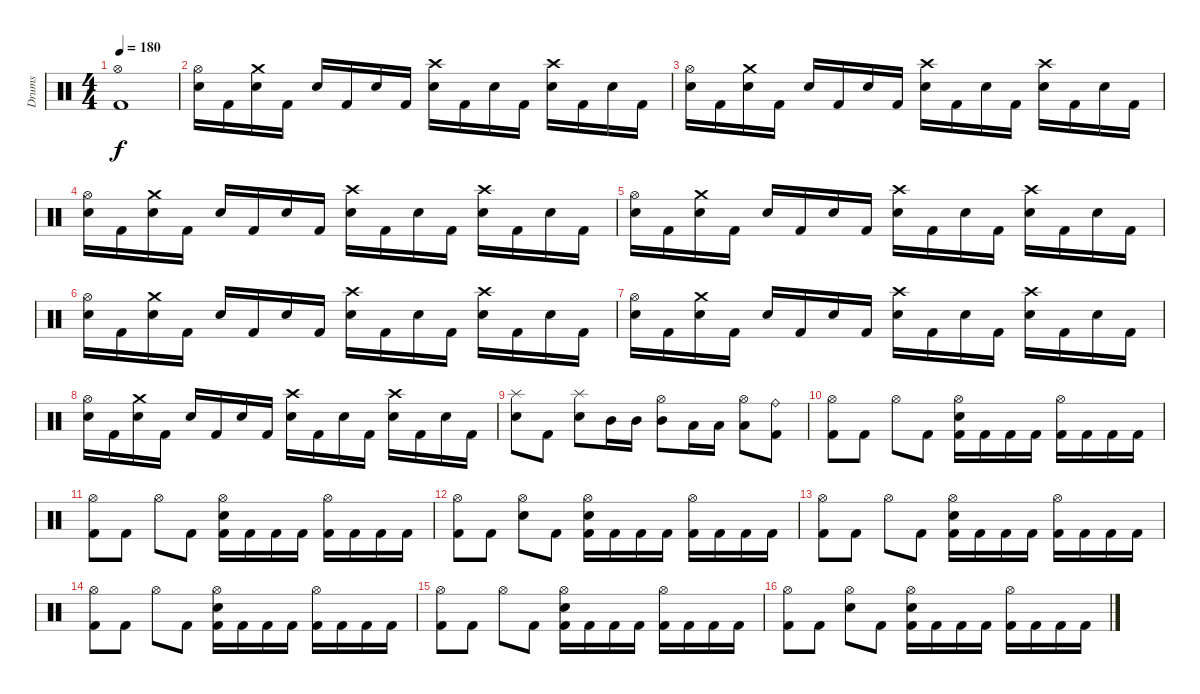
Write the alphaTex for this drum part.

\track ("Drums" "Drums") {instrument percussion}
\staff {score}
\articulation defaults
\ts (4 4)
\tempo 180
\clef neutral
\ks c
("Hi-Hat (open)" "Kick (hit) 2").1{dy f} |
("Hi-Hat (open)" "Electric Snare (hit)").16 "Kick (hit) 2".16 ("Crash medium (hit)" "Electric Snare (hit)").16 "Kick (hit) 2".16 "Electric Snare (hit)".16 "Kick (hit) 2".16 "Electric Snare (hit)".16 "Kick (hit) 2".16 ("Crash high (hit)" "Electric Snare (hit)").16 "Kick (hit) 2".16 "Electric Snare (hit)".16 "Kick (hit) 2".16 ("Crash high (hit)" "Electric Snare (hit)").16 "Kick (hit) 2".16 "Electric Snare (hit)".16 "Kick (hit) 2".16 |
("Hi-Hat (open)" "Electric Snare (hit)").16 "Kick (hit) 2".16 ("Crash medium (hit)" "Electric Snare (hit)").16 "Kick (hit) 2".16 "Electric Snare (hit)".16 "Kick (hit) 2".16 "Electric Snare (hit)".16 "Kick (hit) 2".16 ("Crash high (hit)" "Electric Snare (hit)").16 "Kick (hit) 2".16 "Electric Snare (hit)".16 "Kick (hit) 2".16 ("Crash high (hit)" "Electric Snare (hit)").16 "Kick (hit) 2".16 "Electric Snare (hit)".16 "Kick (hit) 2".16 |
("Hi-Hat (open)" "Electric Snare (hit)").16 "Kick (hit) 2".16 ("Crash medium (hit)" "Electric Snare (hit)").16 "Kick (hit) 2".16 "Electric Snare (hit)".16 "Kick (hit) 2".16 "Electric Snare (hit)".16 "Kick (hit) 2".16 ("Crash high (hit)" "Electric Snare (hit)").16 "Kick (hit) 2".16 "Electric Snare (hit)".16 "Kick (hit) 2".16 ("Crash high (hit)" "Electric Snare (hit)").16 "Kick (hit) 2".16 "Electric Snare (hit)".16 "Kick (hit) 2".16 |
("Hi-Hat (open)" "Electric Snare (hit)").16 "Kick (hit) 2".16 ("Crash medium (hit)" "Electric Snare (hit)").16 "Kick (hit) 2".16 "Electric Snare (hit)".16 "Kick (hit) 2".16 "Electric Snare (hit)".16 "Kick (hit) 2".16 ("Crash high (hit)" "Electric Snare (hit)").16 "Kick (hit) 2".16 "Electric Snare (hit)".16 "Kick (hit) 2".16 ("Crash high (hit)" "Electric Snare (hit)").16 "Kick (hit) 2".16 "Electric Snare (hit)".16 "Kick (hit) 2".16 |
("Hi-Hat (open)" "Electric Snare (hit)").16 "Kick (hit) 2".16 ("Crash medium (hit)" "Electric Snare (hit)").16 "Kick (hit) 2".16 "Electric Snare (hit)".16 "Kick (hit) 2".16 "Electric Snare (hit)".16 "Kick (hit) 2".16 ("Crash high (hit)" "Electric Snare (hit)").16 "Kick (hit) 2".16 "Electric Snare (hit)".16 "Kick (hit) 2".16 ("Crash high (hit)" "Electric Snare (hit)").16 "Kick (hit) 2".16 "Electric Snare (hit)".16 "Kick (hit) 2".16 |
("Hi-Hat (open)" "Electric Snare (hit)").16 "Kick (hit) 2".16 ("Crash medium (hit)" "Electric Snare (hit)").16 "Kick (hit) 2".16 "Electric Snare (hit)".16 "Kick (hit) 2".16 "Electric Snare (hit)".16 "Kick (hit) 2".16 ("Crash high (hit)" "Electric Snare (hit)").16 "Kick (hit) 2".16 "Electric Snare (hit)".16 "Kick (hit) 2".16 ("Crash high (hit)" "Electric Snare (hit)").16 "Kick (hit) 2".16 "Electric Snare (hit)".16 "Kick (hit) 2".16 |
("Hi-Hat (open)" "Electric Snare (hit)").16 "Kick (hit) 2".16 ("Crash medium (hit)" "Electric Snare (hit)").16 "Kick (hit) 2".16 "Electric Snare (hit)".16 "Kick (hit) 2".16 "Electric Snare (hit)".16 "Kick (hit) 2".16 ("Crash high (hit)" "Electric Snare (hit)").16 "Kick (hit) 2".16 "Electric Snare (hit)".16 "Kick (hit) 2".16 ("Crash high (hit)" "Electric Snare (hit)").16 "Kick (hit) 2".16 "Electric Snare (hit)".16 "Kick (hit) 2".16 |
("Splash (hit)" "Electric Snare (hit)").8 "Kick (hit) 2".8 ("Splash (hit)" "Electric Snare (hit)").8 "Mid Tom (hit)".16 "Mid Tom (hit)".16 ("Hi-Hat (open)" "Mid Tom (hit)").8 "Low Tom (hit)".16 "Low Tom (hit)".16 ("Hi-Hat (open)" "Low Tom (hit)").8 ("Ride (bell)" "Kick (hit) 2").8 |
("Hi-Hat (open)" "Kick (hit) 2").8 "Kick (hit) 2".8 "Hi-Hat (open)".8 "Kick (hit) 2".8 ("Hi-Hat (open)" "Electric Snare (hit)" "Kick (hit) 2").16 "Kick (hit) 2".16 "Kick (hit) 2".16 "Kick (hit) 2".16 ("Hi-Hat (open)" "Kick (hit) 2").16 "Kick (hit) 2".16 "Kick (hit) 2".16 "Kick (hit) 2".16 |
("Hi-Hat (open)" "Kick (hit) 2").8 "Kick (hit) 2".8 "Hi-Hat (open)".8 "Kick (hit) 2".8 ("Hi-Hat (open)" "Electric Snare (hit)" "Kick (hit) 2").16 "Kick (hit) 2".16 "Kick (hit) 2".16 "Kick (hit) 2".16 ("Hi-Hat (open)" "Kick (hit) 2").16 "Kick (hit) 2".16 "Kick (hit) 2".16 "Kick (hit) 2".16 |
("Hi-Hat (open)" "Kick (hit) 2").8 "Kick (hit) 2".8 ("Hi-Hat (open)" "Electric Snare (hit)").8 "Kick (hit) 2".8 ("Hi-Hat (open)" "Electric Snare (hit)" "Kick (hit) 2").16 "Kick (hit) 2".16 "Kick (hit) 2".16 "Kick (hit) 2".16 ("Hi-Hat (open)" "Kick (hit) 2").16 "Kick (hit) 2".16 "Kick (hit) 2".16 "Kick (hit) 2".16 |
("Hi-Hat (open)" "Kick (hit) 2").8 "Kick (hit) 2".8 "Hi-Hat (open)".8 "Kick (hit) 2".8 ("Hi-Hat (open)" "Electric Snare (hit)" "Kick (hit) 2").16 "Kick (hit) 2".16 "Kick (hit) 2".16 "Kick (hit) 2".16 ("Hi-Hat (open)" "Kick (hit) 2").16 "Kick (hit) 2".16 "Kick (hit) 2".16 "Kick (hit) 2".16 |
("Hi-Hat (open)" "Kick (hit) 2").8 "Kick (hit) 2".8 "Hi-Hat (open)".8 "Kick (hit) 2".8 ("Hi-Hat (open)" "Electric Snare (hit)" "Kick (hit) 2").16 "Kick (hit) 2".16 "Kick (hit) 2".16 "Kick (hit) 2".16 ("Hi-Hat (open)" "Kick (hit) 2").16 "Kick (hit) 2".16 "Kick (hit) 2".16 "Kick (hit) 2".16 |
("Hi-Hat (open)" "Kick (hit) 2").8 "Kick (hit) 2".8 "Hi-Hat (open)".8 "Kick (hit) 2".8 ("Hi-Hat (open)" "Electric Snare (hit)" "Kick (hit) 2").16 "Kick (hit) 2".16 "Kick (hit) 2".16 "Kick (hit) 2".16 ("Hi-Hat (open)" "Kick (hit) 2").16 "Kick (hit) 2".16 "Kick (hit) 2".16 "Kick (hit) 2".16 |
("Hi-Hat (open)" "Kick (hit) 2").8 "Kick (hit) 2".8 ("Hi-Hat (open)" "Electric Snare (hit)").8 "Kick (hit) 2".8 ("Hi-Hat (open)" "Electric Snare (hit)" "Kick (hit) 2").16 "Kick (hit) 2".16 "Kick (hit) 2".16 "Kick (hit) 2".16 ("Hi-Hat (open)" "Kick (hit) 2").16 "Kick (hit) 2".16 "Kick (hit) 2".16 "Kick (hit) 2".16
